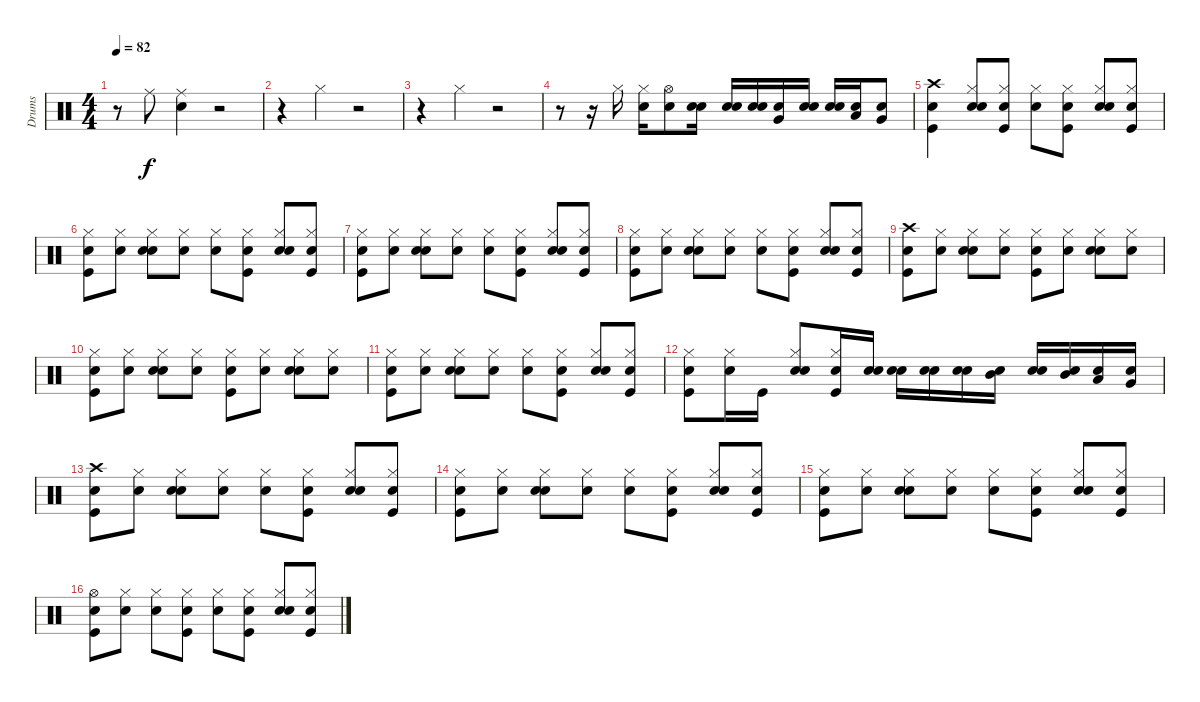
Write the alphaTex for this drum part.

\track ("Drums" "Drums") {instrument percussion}
\staff {score}
\articulation defaults
\ts (4 4)
\tempo 82
\clef neutral
\ks c
r.8{dy f} "Ride (middle)".8 ("Snare (hit)" "Ride (middle)").4 r.2 |
r.4 "Hi-Hat (closed)".4 r.2 |
r.4 "Hi-Hat (closed)".4 r.2 |
r.8 r.16 "Hi-Hat (closed)".16 ("Snare (hit)" "Hi-Hat (closed)").16 ("Snare (hit)" "Hi-Hat (open)").8 ("Snare (hit)" "Electric Snare (hit)").16 ("Snare (hit)" "Electric Snare (hit)").16 ("Snare (hit)" "Electric Snare (hit)").16 ("Snare (hit)" "Very Low Tom (hit)").16 ("Snare (hit)" "Electric Snare (hit)").16 ("Snare (hit)" "Electric Snare (hit)").16 ("Snare (hit)" "Low Tom (hit)").16 ("Snare (hit)" "Very Low Tom (hit)").8 |
("Snare (hit)" "Kick (hit)" "Crash high (hit)").4 ("Snare (hit)" "Electric Snare (hit)" "Hi-Hat (closed)").8 ("Snare (hit)" "Kick (hit)" "Hi-Hat (closed)").8 ("Snare (hit)" "Hi-Hat (closed)").8 ("Snare (hit)" "Kick (hit)" "Hi-Hat (closed)").8 ("Snare (hit)" "Electric Snare (hit)" "Hi-Hat (closed)").8 ("Snare (hit)" "Kick (hit)" "Hi-Hat (closed)").8 |
("Snare (hit)" "Kick (hit)" "Hi-Hat (closed)").8 ("Snare (hit)" "Hi-Hat (closed)").8 ("Snare (hit)" "Electric Snare (hit)" "Hi-Hat (closed)").8 ("Snare (hit)" "Hi-Hat (closed)").8 ("Snare (hit)" "Hi-Hat (closed)").8 ("Snare (hit)" "Kick (hit)" "Hi-Hat (closed)").8 ("Snare (hit)" "Electric Snare (hit)" "Hi-Hat (closed)").8 ("Snare (hit)" "Kick (hit)" "Hi-Hat (closed)").8 |
("Snare (hit)" "Kick (hit)" "Hi-Hat (closed)").8 ("Snare (hit)" "Hi-Hat (closed)").8 ("Snare (hit)" "Electric Snare (hit)" "Hi-Hat (closed)").8 ("Snare (hit)" "Hi-Hat (closed)").8 ("Snare (hit)" "Hi-Hat (closed)").8 ("Snare (hit)" "Kick (hit)" "Hi-Hat (closed)").8 ("Snare (hit)" "Electric Snare (hit)" "Hi-Hat (closed)").8 ("Snare (hit)" "Kick (hit)" "Hi-Hat (closed)").8 |
("Snare (hit)" "Kick (hit)" "Hi-Hat (closed)").8 ("Snare (hit)" "Hi-Hat (closed)").8 ("Snare (hit)" "Electric Snare (hit)" "Hi-Hat (closed)").8 ("Snare (hit)" "Hi-Hat (closed)").8 ("Snare (hit)" "Hi-Hat (closed)").8 ("Snare (hit)" "Kick (hit)" "Hi-Hat (closed)").8 ("Snare (hit)" "Electric Snare (hit)" "Hi-Hat (closed)").8 ("Snare (hit)" "Kick (hit)" "Hi-Hat (closed)").8 |
("Snare (hit)" "Kick (hit)" "Crash high (hit)").8 ("Snare (hit)" "Hi-Hat (closed)").8 ("Snare (hit)" "Electric Snare (hit)" "Hi-Hat (closed)").8 ("Snare (hit)" "Hi-Hat (closed)").8 ("Snare (hit)" "Kick (hit)" "Hi-Hat (closed)").8 ("Snare (hit)" "Hi-Hat (closed)").8 ("Snare (hit)" "Electric Snare (hit)" "Hi-Hat (closed)").8 ("Snare (hit)" "Hi-Hat (closed)").8 |
("Snare (hit)" "Kick (hit)" "Hi-Hat (closed)").8 ("Snare (hit)" "Hi-Hat (closed)").8 ("Snare (hit)" "Electric Snare (hit)" "Hi-Hat (closed)").8 ("Snare (hit)" "Hi-Hat (closed)").8 ("Snare (hit)" "Kick (hit)" "Hi-Hat (closed)").8 ("Snare (hit)" "Hi-Hat (closed)").8 ("Snare (hit)" "Electric Snare (hit)" "Hi-Hat (closed)").8 ("Snare (hit)" "Hi-Hat (closed)").8 |
("Snare (hit)" "Kick (hit)" "Hi-Hat (closed)").8 ("Snare (hit)" "Hi-Hat (closed)").8 ("Snare (hit)" "Electric Snare (hit)" "Hi-Hat (closed)").8 ("Snare (hit)" "Hi-Hat (closed)").8 ("Snare (hit)" "Hi-Hat (closed)").8 ("Snare (hit)" "Kick (hit)" "Hi-Hat (closed)").8 ("Snare (hit)" "Electric Snare (hit)" "Hi-Hat (closed)").8 ("Snare (hit)" "Kick (hit)" "Hi-Hat (closed)").8 |
("Snare (hit)" "Kick (hit)" "Hi-Hat (closed)").8 ("Snare (hit)" "Hi-Hat (closed)").16 "Kick (hit)".16 ("Snare (hit)" "Electric Snare (hit)" "Hi-Hat (closed)").8 ("Snare (hit)" "Kick (hit)" "Hi-Hat (closed)").16 ("Snare (hit)" "Electric Snare (hit)").16 ("Snare (hit)" "Electric Snare (hit)").16 ("Snare (hit)" "Electric Snare (hit)").16 ("Snare (hit)" "Electric Snare (hit)").16 ("Snare (hit)" "Mid Tom (hit)").16 ("Snare (hit)" "Electric Snare (hit)").16 ("Snare (hit)" "Mid Tom (hit)").16 ("Snare (hit)" "Low Tom (hit)").16 ("Snare (hit)" "Very Low Tom (hit)").16 |
("Snare (hit)" "Kick (hit)" "Crash high (hit)").8 ("Snare (hit)" "Hi-Hat (closed)").8 ("Snare (hit)" "Electric Snare (hit)" "Hi-Hat (closed)").8 ("Snare (hit)" "Hi-Hat (closed)").8 ("Snare (hit)" "Hi-Hat (closed)").8 ("Snare (hit)" "Kick (hit)" "Hi-Hat (closed)").8 ("Snare (hit)" "Electric Snare (hit)" "Hi-Hat (closed)").8 ("Snare (hit)" "Kick (hit)" "Hi-Hat (closed)").8 |
("Snare (hit)" "Kick (hit)" "Hi-Hat (closed)").8 ("Snare (hit)" "Hi-Hat (closed)").8 ("Snare (hit)" "Electric Snare (hit)" "Hi-Hat (closed)").8 ("Snare (hit)" "Hi-Hat (closed)").8 ("Snare (hit)" "Hi-Hat (closed)").8 ("Snare (hit)" "Kick (hit)" "Hi-Hat (closed)").8 ("Snare (hit)" "Electric Snare (hit)" "Hi-Hat (closed)").8 ("Snare (hit)" "Kick (hit)" "Hi-Hat (closed)").8 |
("Snare (hit)" "Kick (hit)" "Hi-Hat (closed)").8 ("Snare (hit)" "Hi-Hat (closed)").8 ("Snare (hit)" "Electric Snare (hit)" "Hi-Hat (closed)").8 ("Snare (hit)" "Hi-Hat (closed)").8 ("Snare (hit)" "Hi-Hat (closed)").8 ("Snare (hit)" "Kick (hit)" "Hi-Hat (closed)").8 ("Snare (hit)" "Electric Snare (hit)" "Hi-Hat (closed)").8 ("Snare (hit)" "Kick (hit)" "Hi-Hat (closed)").8 |
("Snare (hit)" "Kick (hit)" "Hi-Hat (open)").8 ("Snare (hit)" "Hi-Hat (closed)").8 ("Snare (hit)" "Hi-Hat (closed)").8 ("Snare (hit)" "Kick (hit)" "Hi-Hat (closed)").8 ("Snare (hit)" "Hi-Hat (closed)").8 ("Snare (hit)" "Kick (hit)" "Hi-Hat (closed)").8 ("Snare (hit)" "Electric Snare (hit)" "Hi-Hat (closed)").8 ("Snare (hit)" "Kick (hit)" "Hi-Hat (closed)").8
